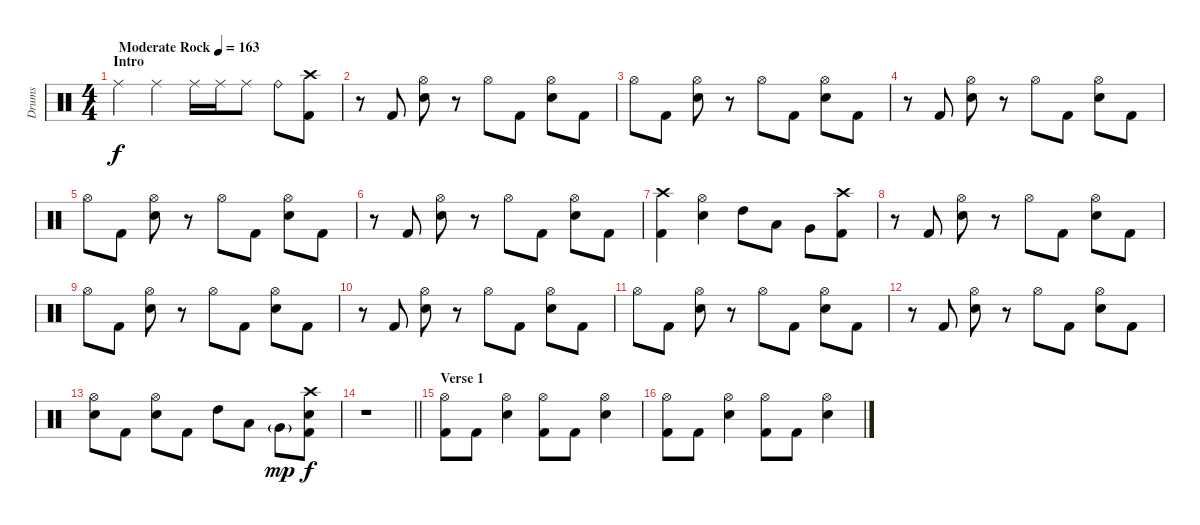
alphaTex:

\track ("Drums" "Drums") {instrument percussion}
\staff {score}
\articulation defaults
\ts (4 4)
\section ("" "Intro")
\tempo (163 "Moderate Rock")
\clef neutral
\ks c "Ride (middle)".4{dy f} "Ride (middle)".4 "Ride (middle)".16 "Ride (middle)".16 "Ride (middle)".8 "Ride (bell)".8
("Crash high (hit)" "Kick (hit) 2").8 |
r.8 "Kick (hit) 2".8 ("Hi-Hat (open)" "Snare (hit) 2").8 r.8 "Hi-Hat (open)".8 "Kick (hit) 2".8 ("Hi-Hat (open)" "Snare (hit) 2").8 "Kick (hit) 2".8 |
"Hi-Hat (open)".8 "Kick (hit) 2".8 ("Hi-Hat (open)" "Snare (hit) 2").8 r.8 "Hi-Hat (open)".8 "Kick (hit) 2".8 ("Hi-Hat (open)" "Snare (hit) 2").8 "Kick (hit) 2".8 |
r.8 "Kick (hit) 2".8 ("Hi-Hat (open)" "Snare (hit) 2").8 r.8 "Hi-Hat (open)".8 "Kick (hit) 2".8 ("Hi-Hat (open)" "Snare (hit) 2").8 "Kick (hit) 2".8 |
"Hi-Hat (open)".8 "Kick (hit) 2".8 ("Hi-Hat (open)" "Snare (hit) 2").8 r.8 "Hi-Hat (open)".8 "Kick (hit) 2".8 ("Hi-Hat (open)" "Snare (hit) 2").8 "Kick (hit) 2".8 |
r.8 "Kick (hit) 2".8 ("Hi-Hat (open)" "Snare (hit) 2").8 r.8 "Hi-Hat (open)".8 "Kick (hit) 2".8 ("Hi-Hat (open)" "Snare (hit) 2").8 "Kick (hit) 2".8 |
("Crash high (hit)" "Kick (hit) 2").4 ("Hi-Hat (open)" "Snare (hit) 2").4 "High Tom (hit)".8 "Low Tom (hit)".8 "Very Low Tom (hit)".8 ("Crash high (hit)" "Kick (hit) 2").8 |
r.8 "Kick (hit) 2".8 ("Hi-Hat (open)" "Snare (hit) 2").8 r.8 "Hi-Hat (open)".8 "Kick (hit) 2".8 ("Hi-Hat (open)" "Snare (hit) 2").8 "Kick (hit) 2".8 |
"Hi-Hat (open)".8 "Kick (hit) 2".8 ("Hi-Hat (open)" "Snare (hit) 2").8 r.8 "Hi-Hat (open)".8 "Kick (hit) 2".8 ("Hi-Hat (open)" "Snare (hit) 2").8 "Kick (hit) 2".8 |
r.8 "Kick (hit) 2".8 ("Hi-Hat (open)" "Snare (hit) 2").8 r.8 "Hi-Hat (open)".8 "Kick (hit) 2".8 ("Hi-Hat (open)" "Snare (hit) 2").8 "Kick (hit) 2".8 |
"Hi-Hat (open)".8 "Kick (hit) 2".8 ("Hi-Hat (open)" "Snare (hit) 2").8 r.8 "Hi-Hat (open)".8 "Kick (hit) 2".8 ("Hi-Hat (open)" "Snare (hit) 2").8 "Kick (hit) 2".8 |
r.8 "Kick (hit) 2".8 ("Hi-Hat (open)" "Snare (hit) 2").8 r.8 "Hi-Hat (open)".8 "Kick (hit) 2".8 ("Hi-Hat (open)" "Snare (hit) 2").8 "Kick (hit) 2".8 |
("Hi-Hat (open)" "Snare (hit) 2").8 "Kick (hit) 2".8 ("Hi-Hat (open)" "Snare (hit) 2").8 "Kick (hit) 2".8 "High Tom (hit)".8 "Low Tom (hit)".8 "Very Low Tom (hit)"{g}.8{dy mp} ("Crash high (hit)" "Snare (hit) 2" "Kick (hit) 2").8{dy f} |
\barLineRight lightlight
r.1 |
\section ("" "Verse 1")
("Hi-Hat (open)" "Kick (hit) 2").8 "Kick (hit) 2".8 ("Hi-Hat (open)" "Snare (hit) 2").4 ("Hi-Hat (open)" "Kick (hit) 2").8 "Kick (hit) 2".8 ("Hi-Hat (open)" "Snare (hit) 2").4 |
("Hi-Hat (open)" "Kick (hit) 2").8 "Kick (hit) 2".8 ("Hi-Hat (open)" "Snare (hit) 2").4 ("Hi-Hat (open)" "Kick (hit) 2").8 "Kick (hit) 2".8 ("Hi-Hat (open)" "Snare (hit) 2").4
